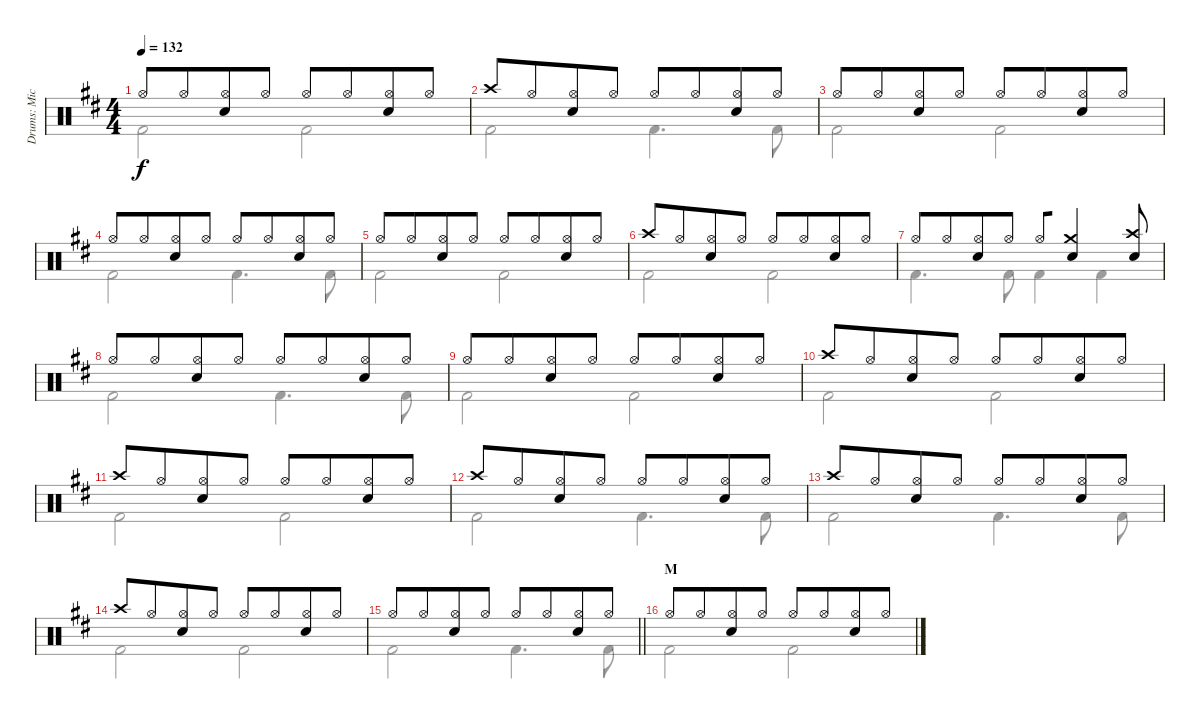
\track ("Drums: Mick" "Drums: Mic") {instrument percussion}
\staff {score}
\articulation defaults
\voice
\ts (4 4)
\tempo 132
\clef neutral
\ks d "Hi-Hat (open)".8{dy f} "Hi-Hat (open)".8{beam merge}
("Hi-Hat (open)" "Snare (hit) 2").8 "Hi-Hat (open)".8 "Hi-Hat (open)".8 "Hi-Hat (open)".8{beam merge} ("Hi-Hat (open)" "Snare (hit) 2").8 "Hi-Hat (open)".8 |
"Crash high (hit)".8 "Hi-Hat (open)".8{beam merge} ("Hi-Hat (open)" "Snare (hit) 2").8 "Hi-Hat (open)".8 "Hi-Hat (open)".8 "Hi-Hat (open)".8{beam merge} ("Hi-Hat (open)" "Snare (hit) 2").8 "Hi-Hat (open)".8 |
"Hi-Hat (open)".8 "Hi-Hat (open)".8{beam merge} ("Hi-Hat (open)" "Snare (hit) 2").8 "Hi-Hat (open)".8 "Hi-Hat (open)".8 "Hi-Hat (open)".8{beam merge} ("Hi-Hat (open)" "Snare (hit) 2").8 "Hi-Hat (open)".8 |
"Hi-Hat (open)".8 "Hi-Hat (open)".8{beam merge} ("Hi-Hat (open)" "Snare (hit) 2").8 "Hi-Hat (open)".8 "Hi-Hat (open)".8 "Hi-Hat (open)".8{beam merge} ("Hi-Hat (open)" "Snare (hit) 2").8 "Hi-Hat (open)".8 |
"Hi-Hat (open)".8 "Hi-Hat (open)".8{beam merge} ("Hi-Hat (open)" "Snare (hit) 2").8 "Hi-Hat (open)".8 "Hi-Hat (open)".8 "Hi-Hat (open)".8{beam merge} ("Hi-Hat (open)" "Snare (hit) 2").8 "Hi-Hat (open)".8 |
"Crash high (hit)".8 "Hi-Hat (open)".8{beam merge} ("Hi-Hat (open)" "Snare (hit) 2").8 "Hi-Hat (open)".8 "Hi-Hat (open)".8 "Hi-Hat (open)".8{beam merge} ("Hi-Hat (open)" "Snare (hit) 2").8 "Hi-Hat (open)".8 |
"Hi-Hat (open)".8 "Hi-Hat (open)".8{beam merge} ("Hi-Hat (open)" "Snare (hit) 2").8 "Hi-Hat (open)".8 "Hi-Hat (open)".8{beam merge} ("Crash medium (hit)" "Snare (hit) 2").4 ("Crash high (hit)" "Snare (hit) 2").8 |
"Hi-Hat (open)".8 "Hi-Hat (open)".8{beam merge} ("Hi-Hat (open)" "Snare (hit) 2").8 "Hi-Hat (open)".8 "Hi-Hat (open)".8 "Hi-Hat (open)".8{beam merge} ("Hi-Hat (open)" "Snare (hit) 2").8 "Hi-Hat (open)".8 |
"Hi-Hat (open)".8 "Hi-Hat (open)".8{beam merge} ("Hi-Hat (open)" "Snare (hit) 2").8 "Hi-Hat (open)".8 "Hi-Hat (open)".8 "Hi-Hat (open)".8{beam merge} ("Hi-Hat (open)" "Snare (hit) 2").8 "Hi-Hat (open)".8 |
"Crash high (hit)".8 "Hi-Hat (open)".8{beam merge} ("Hi-Hat (open)" "Snare (hit) 2").8 "Hi-Hat (open)".8 "Hi-Hat (open)".8 "Hi-Hat (open)".8{beam merge} ("Hi-Hat (open)" "Snare (hit) 2").8 "Hi-Hat (open)".8 |
"Crash high (hit)".8 "Hi-Hat (open)".8{beam merge} ("Hi-Hat (open)" "Snare (hit) 2").8 "Hi-Hat (open)".8 "Hi-Hat (open)".8 "Hi-Hat (open)".8{beam merge} ("Hi-Hat (open)" "Snare (hit) 2").8 "Hi-Hat (open)".8 |
"Crash high (hit)".8 "Hi-Hat (open)".8{beam merge} ("Hi-Hat (open)" "Snare (hit) 2").8 "Hi-Hat (open)".8 "Hi-Hat (open)".8 "Hi-Hat (open)".8{beam merge} ("Hi-Hat (open)" "Snare (hit) 2").8 "Hi-Hat (open)".8 |
"Crash high (hit)".8 "Hi-Hat (open)".8{beam merge} ("Hi-Hat (open)" "Snare (hit) 2").8 "Hi-Hat (open)".8 "Hi-Hat (open)".8 "Hi-Hat (open)".8{beam merge} ("Hi-Hat (open)" "Snare (hit) 2").8 "Hi-Hat (open)".8 |
"Crash high (hit)".8 "Hi-Hat (open)".8{beam merge} ("Hi-Hat (open)" "Snare (hit) 2").8 "Hi-Hat (open)".8 "Hi-Hat (open)".8 "Hi-Hat (open)".8{beam merge} ("Hi-Hat (open)" "Snare (hit) 2").8 "Hi-Hat (open)".8 |
\barLineRight lightlight "Hi-Hat (open)".8 "Hi-Hat (open)".8{beam merge}
("Hi-Hat (open)" "Snare (hit) 2").8 "Hi-Hat (open)".8 "Hi-Hat (open)".8 "Hi-Hat (open)".8{beam merge} ("Hi-Hat (open)" "Snare (hit) 2").8 "Hi-Hat (open)".8 |
\section ("" "M")
"Hi-Hat (open)".8 "Hi-Hat (open)".8{beam merge} ("Hi-Hat (open)" "Snare (hit) 2").8 "Hi-Hat (open)".8 "Hi-Hat (open)".8 "Hi-Hat (open)".8{beam merge} ("Hi-Hat (open)" "Snare (hit) 2").8 "Hi-Hat (open)".8
\voice
\clef neutral
\ottava regular
\simile none
\ks d "Kick (hit) 2".2{dy f} "Kick (hit) 2".2
|
"Kick (hit) 2".2 "Kick (hit) 2".4{d} "Kick (hit) 2".8 |
"Kick (hit) 2".2 "Kick (hit) 2".2 |
"Kick (hit) 2".2 "Kick (hit) 2".4{d} "Kick (hit) 2".8 |
"Kick (hit) 2".2 "Kick (hit) 2".2 |
"Kick (hit) 2".2 "Kick (hit) 2".2 |
"Kick (hit) 2".4{d} "Kick (hit) 2".8 "Kick (hit) 2".4 "Kick (hit) 2".4 |
"Kick (hit) 2".2 "Kick (hit) 2".4{d} "Kick (hit) 2".8 |
"Kick (hit) 2".2 "Kick (hit) 2".2 |
"Kick (hit) 2".2 "Kick (hit) 2".2 |
"Kick (hit) 2".2 "Kick (hit) 2".2 |
"Kick (hit) 2".2 "Kick (hit) 2".4{d} "Kick (hit) 2".8 |
"Kick (hit) 2".2 "Kick (hit) 2".4{d} "Kick (hit) 2".8 |
"Kick (hit) 2".2 "Kick (hit) 2".2 |
\barLineRight lightlight "Kick (hit) 2".2 "Kick (hit) 2".4{d} "Kick (hit) 2".8
|
"Kick (hit) 2".2 "Kick (hit) 2".2
